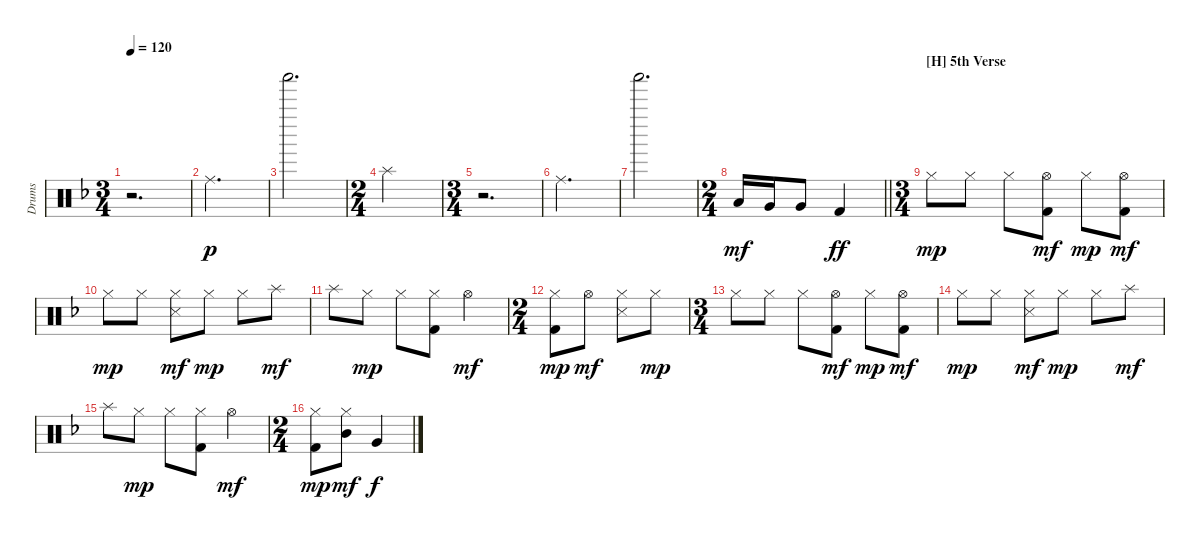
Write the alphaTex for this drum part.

\track ("Drums" "Drums") {instrument percussion}
\staff {score}
\articulation defaults
\ts (3 4)
\tempo 120
\clef neutral
\ks dminor
r.2{d dy p} |
"Ride (middle)".2{d} |
"Shaker (hit)".2{d} |
\ts (2 4)
"Splash (hit)".2 |
\ts (3 4)
r.2{d} |
"Ride (middle)".2{d} |
"Shaker (hit)".2{d} |
\ts (2 4)
\barLineRight lightlight "Low Floor Tom (hit)".16{dy mf} "Very Low Tom (hit)".16 "Very Low Tom (hit)".8 "Kick (hit) 2".4{dy ff}
|
\ts (3 4)
\section ("" "[H] 5th Verse")
"Hi-Hat (closed)".8{dy mp} "Hi-Hat (closed)".8 "Hi-Hat (closed)".8 ("Hi-Hat (open)" "Kick (hit) 2").8{dy mf} "Hi-Hat (closed)".8{dy mp} ("Hi-Hat (open)" "Kick (hit) 2").8{dy mf} |
"Hi-Hat (closed)".8{dy mp} "Hi-Hat (closed)".8 ("Hi-Hat (closed)" "Snare (side stick) 3").8{dy mf} "Hi-Hat (closed)".8{dy mp} "Hi-Hat (closed)".8 "Splash (hit)".8{dy mf} |
"Splash (hit)".8 "Hi-Hat (closed)".8{dy mp} "Hi-Hat (closed)".8 ("Hi-Hat (closed)" "Kick (hit) 2").8 "Hi-Hat (open)".4{dy mf} |
\ts (2 4)
("Hi-Hat (closed)" "Kick (hit) 2").8{dy mp} "Hi-Hat (open)".8{dy mf} ("Hi-Hat (closed)" "Snare (side stick) 3").8 "Hi-Hat (closed)".8{dy mp} |
\ts (3 4)
"Hi-Hat (closed)".8 "Hi-Hat (closed)".8 "Hi-Hat (closed)".8 ("Hi-Hat (open)" "Kick (hit) 2").8{dy mf} "Hi-Hat (closed)".8{dy mp} ("Hi-Hat (open)" "Kick (hit) 2").8{dy mf} |
"Hi-Hat (closed)".8{dy mp} "Hi-Hat (closed)".8 ("Hi-Hat (closed)" "Snare (side stick) 3").8{dy mf} "Hi-Hat (closed)".8{dy mp} "Hi-Hat (closed)".8 "Splash (hit)".8{dy mf} |
"Splash (hit)".8 "Hi-Hat (closed)".8{dy mp} "Hi-Hat (closed)".8 ("Hi-Hat (closed)" "Kick (hit) 2").8 "Hi-Hat (open)".4{dy mf} |
\ts (2 4)
("Hi-Hat (closed)" "Kick (hit) 2").8{dy mp} ("Hi-Hat (closed)" "Mid Tom (hit)").8{dy mf} "Very Low Tom (hit)".4{dy f}
